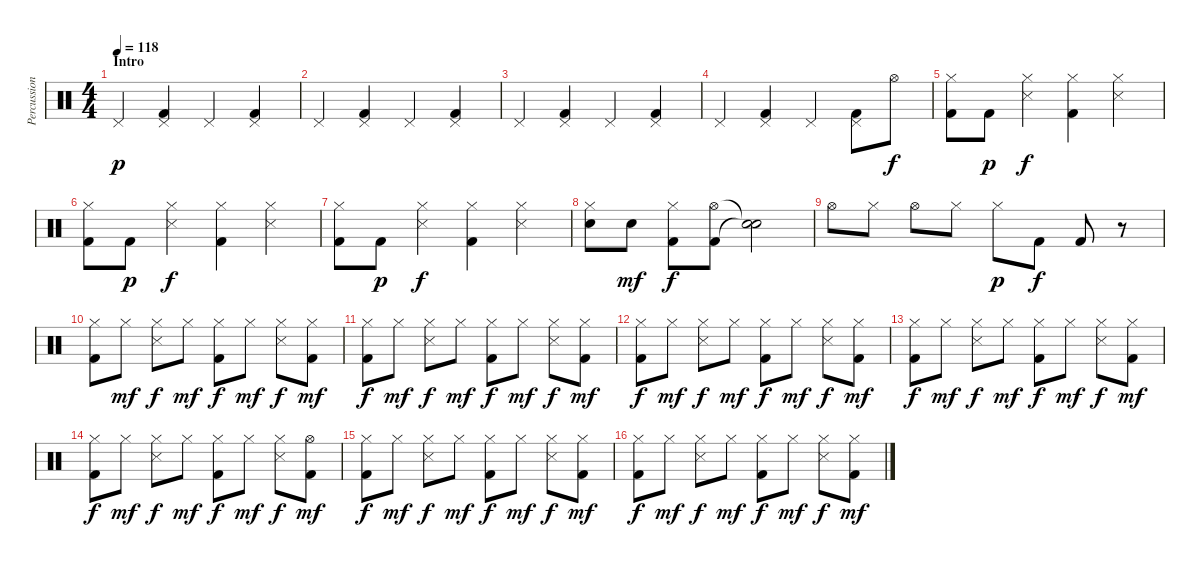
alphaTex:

\track ("Percussion" "Percussion") {instrument percussion}
\staff {score}
\articulation defaults
\ts (4 4)
\section ("" "Intro")
\tempo 118
\clef neutral
\ks c "Pedal Hi-Hat (hit)".4{dy p}
("Pedal Hi-Hat (hit)" "Kick (hit) 2").4 "Pedal Hi-Hat (hit)".4 ("Pedal Hi-Hat (hit)" "Kick (hit) 2").4 |
"Pedal Hi-Hat (hit)".4 ("Pedal Hi-Hat (hit)" "Kick (hit) 2").4 "Pedal Hi-Hat (hit)".4 ("Pedal Hi-Hat (hit)" "Kick (hit) 2").4 |
"Pedal Hi-Hat (hit)".4 ("Pedal Hi-Hat (hit)" "Kick (hit) 2").4 "Pedal Hi-Hat (hit)".4 ("Pedal Hi-Hat (hit)" "Kick (hit) 2").4 |
"Pedal Hi-Hat (hit)".4 ("Pedal Hi-Hat (hit)" "Kick (hit) 2").4 "Pedal Hi-Hat (hit)".4 ("Pedal Hi-Hat (hit)" "Kick (hit) 2").8 "Hi-Hat (open)".8{dy f} |
("Hi-Hat (closed)" "Kick (hit) 2").8 "Kick (hit) 2".8{dy p} ("Hi-Hat (closed)" "Snare (side stick) 3").4{dy f} ("Hi-Hat (closed)" "Kick (hit) 2").4 ("Hi-Hat (closed)" "Snare (side stick) 3").4 |
("Hi-Hat (closed)" "Kick (hit) 2").8 "Kick (hit) 2".8{dy p} ("Hi-Hat (closed)" "Snare (side stick) 3").4{dy f} ("Hi-Hat (closed)" "Kick (hit) 2").4 ("Hi-Hat (closed)" "Snare (side stick) 3").4 |
("Hi-Hat (closed)" "Kick (hit) 2").8 "Kick (hit) 2".8{dy p} ("Hi-Hat (closed)" "Snare (side stick) 3").4{dy f} ("Hi-Hat (closed)" "Kick (hit) 2").4 ("Hi-Hat (closed)" "Snare (side stick) 3").4 |
("Hi-Hat (closed)" "Electric Snare (hit)").8 "Electric Snare (hit)".8{dy mf} ("Hi-Hat (closed)" "Kick (hit) 2").8{dy f} ("Hi-Hat (open)" "Kick (hit) 2").8 ("Snare (hit)"{t} "Snare (hit)"{t}).2 |
"Hi-Hat (open)".8 "Hi-Hat (closed)".8 "Hi-Hat (open)".8 "Hi-Hat (closed)".8 "Hi-Hat (closed)".8{dy p} "Kick (hit) 2".8{dy f} "Kick (hit) 2".8 r.8 |
("Hi-Hat (closed)" "Kick (hit) 2").8 "Hi-Hat (closed)".8{dy mf} ("Hi-Hat (closed)" "Snare (side stick) 3").8{dy f} "Hi-Hat (closed)".8{dy mf} ("Hi-Hat (closed)" "Kick (hit) 2").8{dy f} "Hi-Hat (closed)".8{dy mf} ("Hi-Hat (closed)" "Snare (side stick) 3").8{dy f} ("Hi-Hat (closed)" "Kick (hit) 2").8{dy mf} |
("Hi-Hat (closed)" "Kick (hit) 2").8{dy f} "Hi-Hat (closed)".8{dy mf} ("Hi-Hat (closed)" "Snare (side stick) 3").8{dy f} "Hi-Hat (closed)".8{dy mf} ("Hi-Hat (closed)" "Kick (hit) 2").8{dy f} "Hi-Hat (closed)".8{dy mf} ("Hi-Hat (closed)" "Snare (side stick) 3").8{dy f} ("Hi-Hat (closed)" "Kick (hit) 2").8{dy mf} |
("Hi-Hat (closed)" "Kick (hit) 2").8{dy f} "Hi-Hat (closed)".8{dy mf} ("Hi-Hat (closed)" "Snare (side stick) 3").8{dy f} "Hi-Hat (closed)".8{dy mf} ("Hi-Hat (closed)" "Kick (hit) 2").8{dy f} "Hi-Hat (closed)".8{dy mf} ("Hi-Hat (closed)" "Snare (side stick) 3").8{dy f} ("Hi-Hat (closed)" "Kick (hit) 2").8{dy mf} |
("Hi-Hat (closed)" "Kick (hit) 2").8{dy f} "Hi-Hat (closed)".8{dy mf} ("Hi-Hat (closed)" "Snare (side stick) 3").8{dy f} "Hi-Hat (closed)".8{dy mf} ("Hi-Hat (closed)" "Kick (hit) 2").8{dy f} "Hi-Hat (closed)".8{dy mf} ("Hi-Hat (closed)" "Snare (side stick) 3").8{dy f} ("Hi-Hat (closed)" "Kick (hit) 2").8{dy mf} |
("Hi-Hat (closed)" "Kick (hit) 2").8{dy f} "Hi-Hat (closed)".8{dy mf} ("Hi-Hat (closed)" "Snare (side stick) 3").8{dy f} "Hi-Hat (closed)".8{dy mf} ("Hi-Hat (closed)" "Kick (hit) 2").8{dy f} "Hi-Hat (closed)".8{dy mf} ("Hi-Hat (closed)" "Snare (side stick) 3").8{dy f} ("Hi-Hat (open)" "Kick (hit) 2").8{dy mf} |
("Hi-Hat (closed)" "Kick (hit) 2").8{dy f} "Hi-Hat (closed)".8{dy mf} ("Hi-Hat (closed)" "Snare (side stick) 3").8{dy f} "Hi-Hat (closed)".8{dy mf} ("Hi-Hat (closed)" "Kick (hit) 2").8{dy f} "Hi-Hat (closed)".8{dy mf} ("Hi-Hat (closed)" "Snare (side stick) 3").8{dy f} ("Hi-Hat (closed)" "Kick (hit) 2").8{dy mf} |
("Hi-Hat (closed)" "Kick (hit) 2").8{dy f} "Hi-Hat (closed)".8{dy mf} ("Hi-Hat (closed)" "Snare (side stick) 3").8{dy f} "Hi-Hat (closed)".8{dy mf} ("Hi-Hat (closed)" "Kick (hit) 2").8{dy f} "Hi-Hat (closed)".8{dy mf} ("Hi-Hat (closed)" "Snare (side stick) 3").8{dy f} ("Hi-Hat (closed)" "Kick (hit) 2").8{dy mf}
